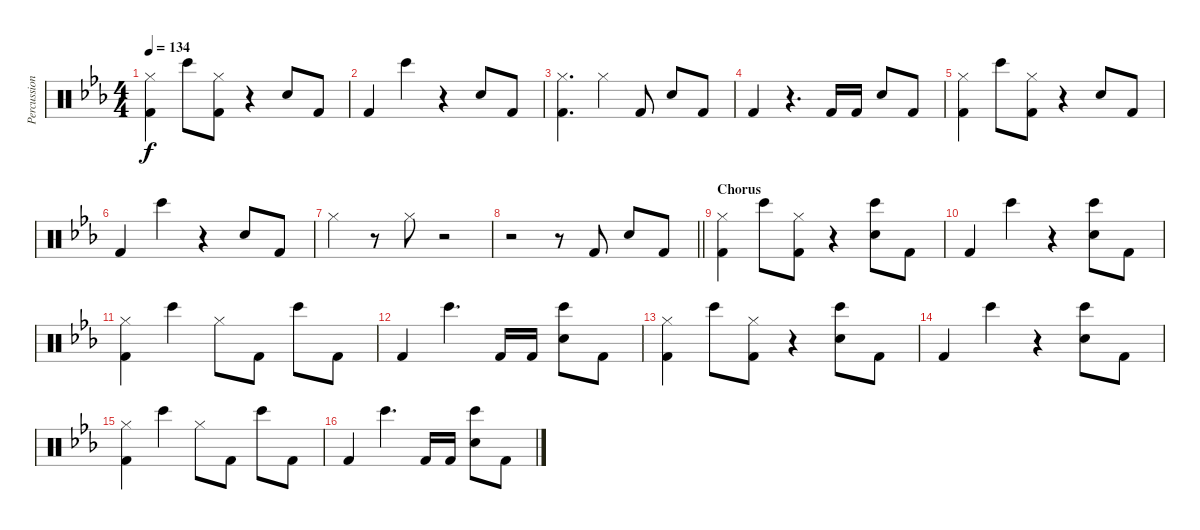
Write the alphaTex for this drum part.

\track ("Percussion" "Percussion") {instrument percussion}
\staff {score}
\articulation defaults
\ts (4 4)
\tempo 134
\clef neutral
\ks eb
("Hi-Hat (closed)" "Kick (hit) 2").4{dy f} "Bongo High (hit)".8 ("Hi-Hat (closed)" "Kick (hit) 2").8 r.4 "Hand Clap (hit)".8 "Kick (hit) 2".8 |
"Kick (hit) 2".4 "Bongo High (hit)".4 r.4 "Hand Clap (hit)".8 "Kick (hit) 2".8 |
("Hi-Hat (closed)" "Kick (hit) 2").4{d} "Hi-Hat (closed)".4 "Kick (hit) 2".8 "Hand Clap (hit)".8 "Kick (hit) 2".8 |
"Kick (hit) 2".4 r.4{d} "Kick (hit) 2".16 "Kick (hit) 2".16 "Hand Clap (hit)".8 "Kick (hit) 2".8 |
("Hi-Hat (closed)" "Kick (hit) 2").4 "Bongo High (hit)".8 ("Hi-Hat (closed)" "Kick (hit) 2").8 r.4 "Hand Clap (hit)".8 "Kick (hit) 2".8 |
"Kick (hit) 2".4 "Bongo High (hit)".4 r.4 "Hand Clap (hit)".8 "Kick (hit) 2".8 |
"Hi-Hat (closed)".4 r.8 "Hi-Hat (closed)".8 r.2 |
\barLineRight lightlight
r.2 r.8 "Kick (hit) 2".8 "Hand Clap (hit)".8 "Kick (hit) 2".8 |
\section ("" "Chorus")
("Hi-Hat (closed)" "Kick (hit) 2").4 "Bongo High (hit)".8 ("Hi-Hat (closed)" "Kick (hit) 2").8 r.4 ("Hand Clap (hit)" "Bongo High (hit)").8 "Kick (hit) 2".8 |
"Kick (hit) 2".4 "Bongo High (hit)".4 r.4 ("Hand Clap (hit)" "Bongo High (hit)").8 "Kick (hit) 2".8 |
("Hi-Hat (closed)" "Kick (hit) 2").4 "Bongo High (hit)".4 "Hi-Hat (closed)".8 "Kick (hit) 2".8 "Bongo High (hit)".8 "Kick (hit) 2".8 |
"Kick (hit) 2".4 "Bongo High (hit)".4{d} "Kick (hit) 2".16 "Kick (hit) 2".16 ("Hand Clap (hit)" "Bongo High (hit)").8 "Kick (hit) 2".8 |
("Hi-Hat (closed)" "Kick (hit) 2").4 "Bongo High (hit)".8 ("Hi-Hat (closed)" "Kick (hit) 2").8 r.4 ("Hand Clap (hit)" "Bongo High (hit)").8 "Kick (hit) 2".8 |
"Kick (hit) 2".4 "Bongo High (hit)".4 r.4 ("Hand Clap (hit)" "Bongo High (hit)").8 "Kick (hit) 2".8 |
("Hi-Hat (closed)" "Kick (hit) 2").4 "Bongo High (hit)".4 "Hi-Hat (closed)".8 "Kick (hit) 2".8 "Bongo High (hit)".8 "Kick (hit) 2".8 |
"Kick (hit) 2".4 "Bongo High (hit)".4{d} "Kick (hit) 2".16 "Kick (hit) 2".16 ("Hand Clap (hit)" "Bongo High (hit)").8 "Kick (hit) 2".8
